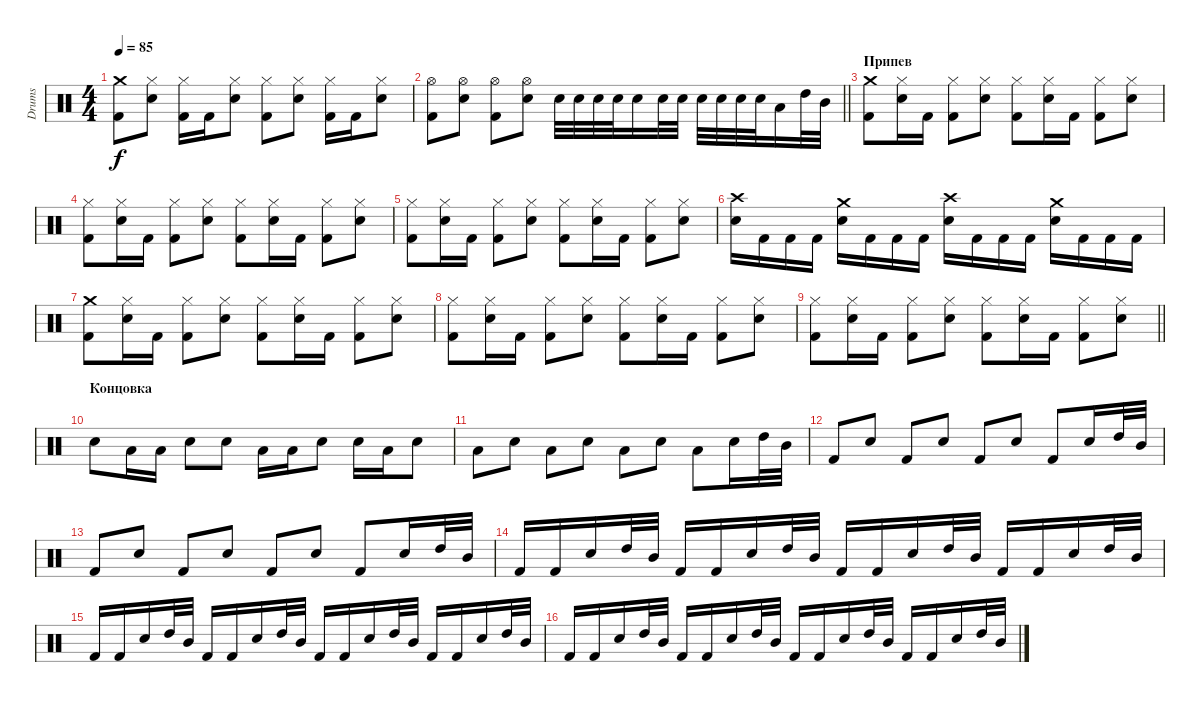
\track ("Drums" "Drums") {instrument percussion}
\staff {score}
\articulation defaults
\ts (4 4)
\tempo 85
\clef neutral
\ks c
("Crash medium (hit)" "Kick (hit) 2").8{dy f} ("Hi-Hat (closed)" "Snare (hit) 2").8 ("Hi-Hat (closed)" "Kick (hit) 2").16 "Kick (hit) 2".16 ("Hi-Hat (closed)" "Snare (hit) 2").8 ("Hi-Hat (closed)" "Kick (hit) 2").8 ("Hi-Hat (closed)" "Snare (hit) 2").8 ("Hi-Hat (closed)" "Kick (hit) 2").16 "Kick (hit) 2".16 ("Hi-Hat (closed)" "Snare (hit) 2").8 |
\barLineRight lightlight
("Hi-Hat (open)" "Kick (hit) 2").8 ("Hi-Hat (open)" "Snare (hit) 2").8 ("Hi-Hat (open)" "Kick (hit) 2").8 ("Hi-Hat (open)" "Snare (hit) 2").8 "Snare (hit) 2".32 "Snare (hit) 2".32 "Snare (hit) 2".32 "Snare (hit) 2".32 "Snare (hit) 2".16 "Snare (hit) 2".32 "Snare (hit) 2".32 "Snare (hit) 2".32 "Snare (hit) 2".32 "Snare (hit) 2".32 "Snare (hit) 2".32 "Low Tom (hit)".16 "High Tom (hit)".32 "Mid Tom (hit)".32 |
\section ("" "Припев")
("Crash medium (hit)" "Kick (hit) 2").8 ("Hi-Hat (closed)" "Snare (hit) 2").16 "Kick (hit) 2".16 ("Hi-Hat (closed)" "Kick (hit) 2").8 ("Hi-Hat (closed)" "Snare (hit) 2").8 ("Hi-Hat (closed)" "Kick (hit) 2").8 ("Hi-Hat (closed)" "Snare (hit) 2").16 "Kick (hit) 2".16 ("Hi-Hat (closed)" "Kick (hit) 2").8 ("Hi-Hat (closed)" "Snare (hit) 2").8 |
("Hi-Hat (closed)" "Kick (hit) 2").8 ("Hi-Hat (closed)" "Snare (hit) 2").16 "Kick (hit) 2".16 ("Hi-Hat (closed)" "Kick (hit) 2").8 ("Hi-Hat (closed)" "Snare (hit) 2").8 ("Hi-Hat (closed)" "Kick (hit) 2").8 ("Hi-Hat (closed)" "Snare (hit) 2").16 "Kick (hit) 2".16 ("Hi-Hat (closed)" "Kick (hit) 2").8 ("Hi-Hat (closed)" "Snare (hit) 2").8 |
("Hi-Hat (closed)" "Kick (hit) 2").8 ("Hi-Hat (closed)" "Snare (hit) 2").16 "Kick (hit) 2".16 ("Hi-Hat (closed)" "Kick (hit) 2").8 ("Hi-Hat (closed)" "Snare (hit) 2").8 ("Hi-Hat (closed)" "Kick (hit) 2").8 ("Hi-Hat (closed)" "Snare (hit) 2").16 "Kick (hit) 2".16 ("Hi-Hat (closed)" "Kick (hit) 2").8 ("Hi-Hat (closed)" "Snare (hit) 2").8 |
("Crash high (hit)" "Snare (hit) 2").16 "Kick (hit) 2".16 "Kick (hit) 2".16 "Kick (hit) 2".16 ("Crash medium (hit)" "Snare (hit) 2").16 "Kick (hit) 2".16 "Kick (hit) 2".16 "Kick (hit) 2".16 ("Crash high (hit)" "Snare (hit) 2").16 "Kick (hit) 2".16 "Kick (hit) 2".16 "Kick (hit) 2".16 ("Crash medium (hit)" "Snare (hit) 2").16 "Kick (hit) 2".16 "Kick (hit) 2".16 "Kick (hit) 2".16 |
("Crash medium (hit)" "Kick (hit) 2").8 ("Hi-Hat (closed)" "Snare (hit) 2").16 "Kick (hit) 2".16 ("Hi-Hat (closed)" "Kick (hit) 2").8 ("Hi-Hat (closed)" "Snare (hit) 2").8 ("Hi-Hat (closed)" "Kick (hit) 2").8 ("Hi-Hat (closed)" "Snare (hit) 2").16 "Kick (hit) 2".16 ("Hi-Hat (closed)" "Kick (hit) 2").8 ("Hi-Hat (closed)" "Snare (hit) 2").8 |
("Hi-Hat (closed)" "Kick (hit) 2").8 ("Hi-Hat (closed)" "Snare (hit) 2").16 "Kick (hit) 2".16 ("Hi-Hat (closed)" "Kick (hit) 2").8 ("Hi-Hat (closed)" "Snare (hit) 2").8 ("Hi-Hat (closed)" "Kick (hit) 2").8 ("Hi-Hat (closed)" "Snare (hit) 2").16 "Kick (hit) 2".16 ("Hi-Hat (closed)" "Kick (hit) 2").8 ("Hi-Hat (closed)" "Snare (hit) 2").8 |
\barLineRight lightlight
("Hi-Hat (closed)" "Kick (hit) 2").8 ("Hi-Hat (closed)" "Snare (hit) 2").16 "Kick (hit) 2".16 ("Hi-Hat (closed)" "Kick (hit) 2").8 ("Hi-Hat (closed)" "Snare (hit) 2").8 ("Hi-Hat (closed)" "Kick (hit) 2").8 ("Hi-Hat (closed)" "Snare (hit) 2").16 "Kick (hit) 2".16 ("Hi-Hat (closed)" "Kick (hit) 2").8 ("Hi-Hat (closed)" "Snare (hit) 2").8 |
\section ("" "Концовка")
"Snare (hit) 2".8 "Low Floor Tom (hit)".16 "Low Floor Tom (hit)".16 "Snare (hit) 2".8 "Snare (hit) 2".8 "Low Floor Tom (hit)".16 "Low Floor Tom (hit)".16 "Snare (hit) 2".8 "Snare (hit) 2".16 "Low Floor Tom (hit)".16 "Snare (hit) 2".8 |
"Low Floor Tom (hit)".8 "Snare (hit) 2".8 "Low Floor Tom (hit)".8 "Snare (hit) 2".8 "Low Floor Tom (hit)".8 "Snare (hit) 2".8 "Low Floor Tom (hit)".8 "Snare (hit) 2".16 "High Tom (hit)".32 "Mid Tom (hit)".32 |
"Kick (hit) 2".8 "Snare (hit) 2".8 "Kick (hit) 2".8 "Snare (hit) 2".8 "Kick (hit) 2".8 "Snare (hit) 2".8 "Kick (hit) 2".8 "Snare (hit) 2".16 "High Tom (hit)".32 "Mid Tom (hit)".32 |
"Kick (hit) 2".8 "Snare (hit) 2".8 "Kick (hit) 2".8 "Snare (hit) 2".8 "Kick (hit) 2".8 "Snare (hit) 2".8 "Kick (hit) 2".8 "Snare (hit) 2".16 "High Tom (hit)".32 "Mid Tom (hit)".32 |
"Kick (hit) 2".16 "Kick (hit) 2".16 "Snare (hit) 2".16 "High Tom (hit)".32 "Mid Tom (hit)".32 "Kick (hit) 2".16 "Kick (hit) 2".16 "Snare (hit) 2".16 "High Tom (hit)".32 "Mid Tom (hit)".32 "Kick (hit) 2".16 "Kick (hit) 2".16 "Snare (hit) 2".16 "High Tom (hit)".32 "Mid Tom (hit)".32 "Kick (hit) 2".16 "Kick (hit) 2".16 "Snare (hit) 2".16 "High Tom (hit)".32 "Mid Tom (hit)".32 |
"Kick (hit) 2".16 "Kick (hit) 2".16 "Snare (hit) 2".16 "High Tom (hit)".32 "Mid Tom (hit)".32 "Kick (hit) 2".16 "Kick (hit) 2".16 "Snare (hit) 2".16 "High Tom (hit)".32 "Mid Tom (hit)".32 "Kick (hit) 2".16 "Kick (hit) 2".16 "Snare (hit) 2".16 "High Tom (hit)".32 "Mid Tom (hit)".32 "Kick (hit) 2".16 "Kick (hit) 2".16 "Snare (hit) 2".16 "High Tom (hit)".32 "Mid Tom (hit)".32 |
"Kick (hit) 2".16 "Kick (hit) 2".16 "Snare (hit) 2".16 "High Tom (hit)".32 "Mid Tom (hit)".32 "Kick (hit) 2".16 "Kick (hit) 2".16 "Snare (hit) 2".16 "High Tom (hit)".32 "Mid Tom (hit)".32 "Kick (hit) 2".16 "Kick (hit) 2".16 "Snare (hit) 2".16 "High Tom (hit)".32 "Mid Tom (hit)".32 "Kick (hit) 2".16 "Kick (hit) 2".16 "Snare (hit) 2".16 "High Tom (hit)".32 "Mid Tom (hit)".32
